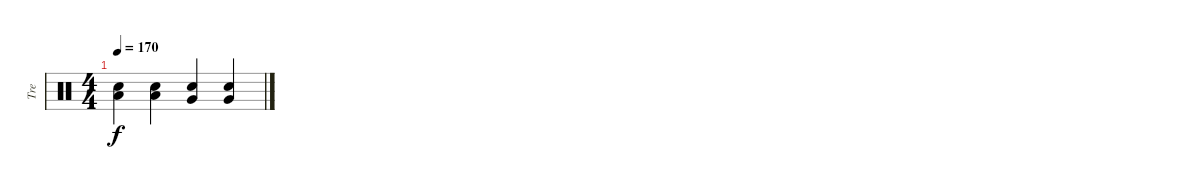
\track ("Tre" "Tre") {instrument percussion}
\staff {score}
\articulation defaults
\ts (4 4)
\tempo 170
\clef neutral
\ks c
("Snare (hit) 2" "Low Tom (hit)").4{dy f} ("Snare (hit) 2" "Low Tom (hit)").4 ("Snare (hit) 2" "Very Low Tom (hit)").4 ("Snare (hit) 2" "Very Low Tom (hit)").4
